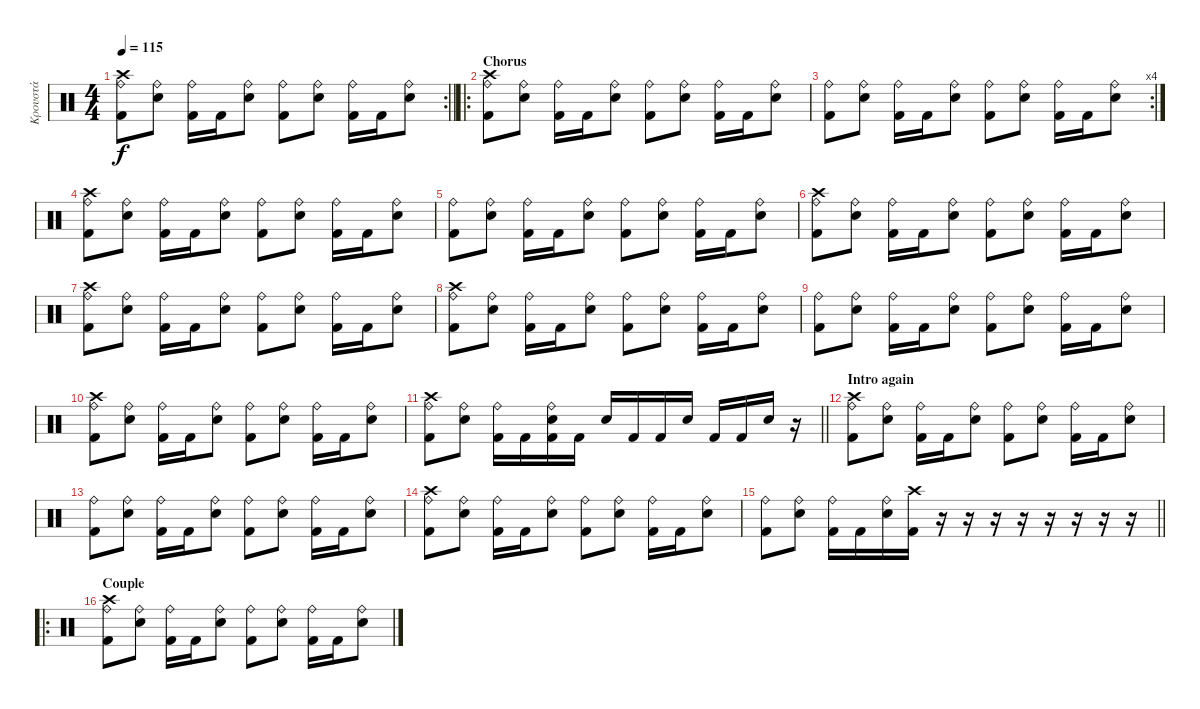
\track ("Κρουστά" "Κρουστά") {instrument percussion}
\staff {score}
\articulation defaults
\rc 2
\ts (4 4)
\tempo 115
\clef neutral
\barLineRight lightlight
\ks c
("Crash high (hit)" "Ride (bell)" "Kick (hit) 2").8{dy f} ("Ride (bell)" "Snare (hit) 2").8 ("Ride (bell)" "Kick (hit) 2").16 "Kick (hit) 2".16 ("Ride (bell)" "Snare (hit) 2").8 ("Ride (bell)" "Kick (hit) 2").8 ("Ride (bell)" "Snare (hit) 2").8 ("Ride (bell)" "Kick (hit) 2").16 "Kick (hit) 2".16 ("Ride (bell)" "Snare (hit) 2").8 |
\ro
\section ("" "Chorus")
("Crash high (hit)" "Ride (bell)" "Kick (hit) 2").8 ("Ride (bell)" "Snare (hit) 2").8 ("Ride (bell)" "Kick (hit) 2").16 "Kick (hit) 2".16 ("Ride (bell)" "Snare (hit) 2").8 ("Ride (bell)" "Kick (hit) 2").8 ("Ride (bell)" "Snare (hit) 2").8 ("Ride (bell)" "Kick (hit) 2").16 "Kick (hit) 2".16 ("Ride (bell)" "Snare (hit) 2").8 |
\rc 4
("Ride (bell)" "Kick (hit) 2").8 ("Ride (bell)" "Snare (hit) 2").8 ("Ride (bell)" "Kick (hit) 2").16 "Kick (hit) 2".16 ("Ride (bell)" "Snare (hit) 2").8 ("Ride (bell)" "Kick (hit) 2").8 ("Ride (bell)" "Snare (hit) 2").8 ("Ride (bell)" "Kick (hit) 2").16 "Kick (hit) 2".16 ("Ride (bell)" "Snare (hit) 2").8 |
("Crash high (hit)" "Ride (bell)" "Kick (hit) 2").8 ("Ride (bell)" "Snare (hit) 2").8 ("Ride (bell)" "Kick (hit) 2").16 "Kick (hit) 2".16 ("Ride (bell)" "Snare (hit) 2").8 ("Ride (bell)" "Kick (hit) 2").8 ("Ride (bell)" "Snare (hit) 2").8 ("Ride (bell)" "Kick (hit) 2").16 "Kick (hit) 2".16 ("Ride (bell)" "Snare (hit) 2").8 |
("Ride (bell)" "Kick (hit) 2").8 ("Ride (bell)" "Snare (hit) 2").8 ("Ride (bell)" "Kick (hit) 2").16 "Kick (hit) 2".16 ("Ride (bell)" "Snare (hit) 2").8 ("Ride (bell)" "Kick (hit) 2").8 ("Ride (bell)" "Snare (hit) 2").8 ("Ride (bell)" "Kick (hit) 2").16 "Kick (hit) 2".16 ("Ride (bell)" "Snare (hit) 2").8 |
("Crash high (hit)" "Ride (bell)" "Kick (hit) 2").8 ("Ride (bell)" "Snare (hit) 2").8 ("Ride (bell)" "Kick (hit) 2").16 "Kick (hit) 2".16 ("Ride (bell)" "Snare (hit) 2").8 ("Ride (bell)" "Kick (hit) 2").8 ("Ride (bell)" "Snare (hit) 2").8 ("Ride (bell)" "Kick (hit) 2").16 "Kick (hit) 2".16 ("Ride (bell)" "Snare (hit) 2").8 |
("Crash high (hit)" "Ride (bell)" "Kick (hit) 2").8 ("Ride (bell)" "Snare (hit) 2").8 ("Ride (bell)" "Kick (hit) 2").16 "Kick (hit) 2".16 ("Ride (bell)" "Snare (hit) 2").8 ("Ride (bell)" "Kick (hit) 2").8 ("Ride (bell)" "Snare (hit) 2").8 ("Ride (bell)" "Kick (hit) 2").16 "Kick (hit) 2".16 ("Ride (bell)" "Snare (hit) 2").8 |
("Crash high (hit)" "Ride (bell)" "Kick (hit) 2").8 ("Ride (bell)" "Snare (hit) 2").8 ("Ride (bell)" "Kick (hit) 2").16 "Kick (hit) 2".16 ("Ride (bell)" "Snare (hit) 2").8 ("Ride (bell)" "Kick (hit) 2").8 ("Ride (bell)" "Snare (hit) 2").8 ("Ride (bell)" "Kick (hit) 2").16 "Kick (hit) 2".16 ("Ride (bell)" "Snare (hit) 2").8 |
("Ride (bell)" "Kick (hit) 2").8 ("Ride (bell)" "Snare (hit) 2").8 ("Ride (bell)" "Kick (hit) 2").16 "Kick (hit) 2".16 ("Ride (bell)" "Snare (hit) 2").8 ("Ride (bell)" "Kick (hit) 2").8 ("Ride (bell)" "Snare (hit) 2").8 ("Ride (bell)" "Kick (hit) 2").16 "Kick (hit) 2".16 ("Ride (bell)" "Snare (hit) 2").8 |
("Crash high (hit)" "Ride (bell)" "Kick (hit) 2").8 ("Ride (bell)" "Snare (hit) 2").8 ("Ride (bell)" "Kick (hit) 2").16 "Kick (hit) 2".16 ("Ride (bell)" "Snare (hit) 2").8 ("Ride (bell)" "Kick (hit) 2").8 ("Ride (bell)" "Snare (hit) 2").8 ("Ride (bell)" "Kick (hit) 2").16 "Kick (hit) 2".16 ("Ride (bell)" "Snare (hit) 2").8 |
\barLineRight lightlight
("Crash high (hit)" "Ride (bell)" "Kick (hit) 2").8 ("Ride (bell)" "Snare (hit) 2").8 ("Ride (bell)" "Kick (hit) 2").16 "Kick (hit) 2".16 ("Snare (hit) 2" "Ride (bell)" "Kick (hit) 2").16 "Kick (hit) 2".16 "Snare (hit) 2".16 "Kick (hit) 2".16 "Kick (hit) 2".16 "Snare (hit) 2".16 "Kick (hit) 2".16 "Kick (hit) 2".16 "Snare (hit) 2".16 r.16 |
\section ("" "Intro again")
("Crash high (hit)" "Ride (bell)" "Kick (hit) 2").8 ("Ride (bell)" "Snare (hit) 2").8 ("Ride (bell)" "Kick (hit) 2").16 "Kick (hit) 2".16 ("Ride (bell)" "Snare (hit) 2").8 ("Ride (bell)" "Kick (hit) 2").8 ("Ride (bell)" "Snare (hit) 2").8 ("Ride (bell)" "Kick (hit) 2").16 "Kick (hit) 2".16 ("Ride (bell)" "Snare (hit) 2").8 |
("Ride (bell)" "Kick (hit) 2").8 ("Ride (bell)" "Snare (hit) 2").8 ("Ride (bell)" "Kick (hit) 2").16 "Kick (hit) 2".16 ("Ride (bell)" "Snare (hit) 2").8 ("Ride (bell)" "Kick (hit) 2").8 ("Ride (bell)" "Snare (hit) 2").8 ("Ride (bell)" "Kick (hit) 2").16 "Kick (hit) 2".16 ("Ride (bell)" "Snare (hit) 2").8 |
("Crash high (hit)" "Ride (bell)" "Kick (hit) 2").8 ("Ride (bell)" "Snare (hit) 2").8 ("Ride (bell)" "Kick (hit) 2").16 "Kick (hit) 2".16 ("Ride (bell)" "Snare (hit) 2").8 ("Ride (bell)" "Kick (hit) 2").8 ("Ride (bell)" "Snare (hit) 2").8 ("Ride (bell)" "Kick (hit) 2").16 "Kick (hit) 2".16 ("Ride (bell)" "Snare (hit) 2").8 |
\barLineRight lightlight
("Ride (bell)" "Kick (hit) 2").8 ("Ride (bell)" "Snare (hit) 2").8 ("Ride (bell)" "Kick (hit) 2").16 "Kick (hit) 2".16 ("Ride (bell)" "Snare (hit) 2").16 ("Crash high (hit)" "Kick (hit) 2").16 r.16 r.16 r.16 r.16 r.16 r.16 r.16 r.16 |
\ro
\section ("" "Couple")
("Crash high (hit)" "Ride (bell)" "Kick (hit) 2").8 ("Ride (bell)" "Snare (hit) 2").8 ("Ride (bell)" "Kick (hit) 2").16 "Kick (hit) 2".16 ("Ride (bell)" "Snare (hit) 2").8 ("Ride (bell)" "Kick (hit) 2").8 ("Ride (bell)" "Snare (hit) 2").8 ("Ride (bell)" "Kick (hit) 2").16 "Kick (hit) 2".16 ("Ride (bell)" "Snare (hit) 2").8
